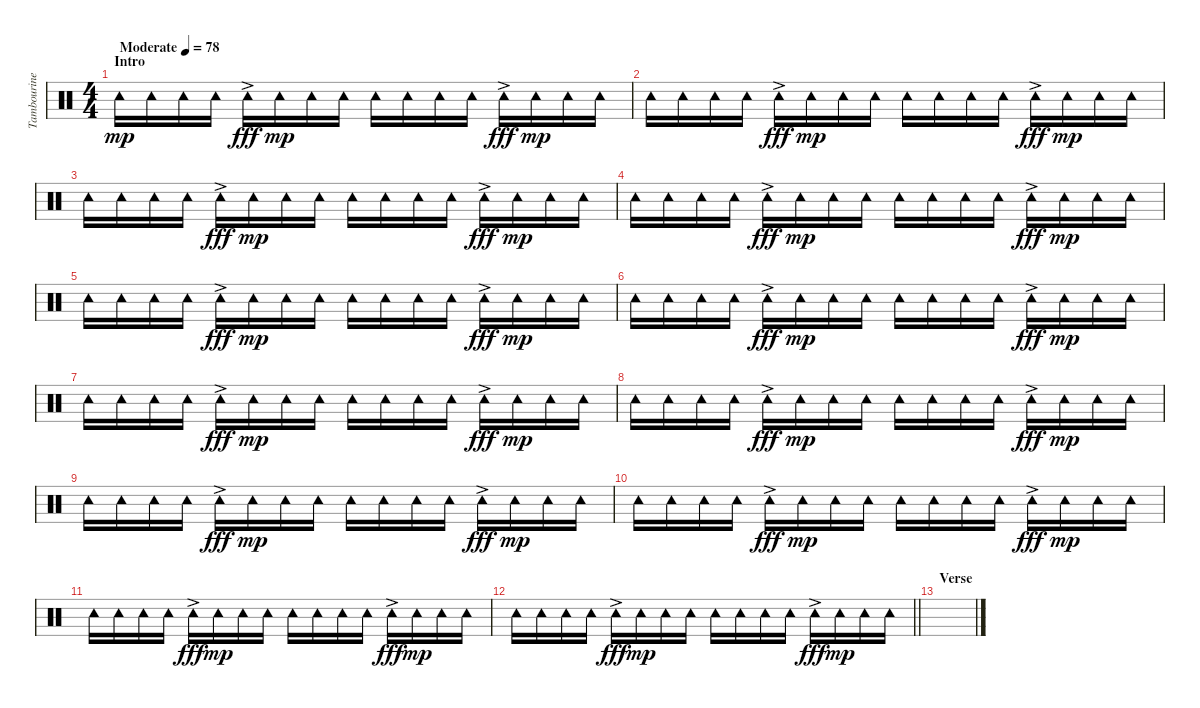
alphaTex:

\track ("Tambourine" "Tambourine") {instrument percussion}
\staff {score}
\articulation defaults
\ts (4 4)
\section ("" "Intro")
\tempo (78 "Moderate")
\clef neutral
\ks c "Tambourine (hit)".16{dy mp} "Tambourine (hit)".16 "Tambourine (hit)".16 "Tambourine (hit)".16 "Tambourine (hit)"{ac}.16{dy fff} "Tambourine (hit)".16{dy mp} "Tambourine (hit)".16 "Tambourine (hit)".16 "Tambourine (hit)".16 "Tambourine (hit)".16 "Tambourine (hit)".16 "Tambourine (hit)".16 "Tambourine (hit)"{ac}.16{dy fff} "Tambourine (hit)".16{dy mp} "Tambourine (hit)".16 "Tambourine (hit)".16
|
"Tambourine (hit)".16 "Tambourine (hit)".16 "Tambourine (hit)".16 "Tambourine (hit)".16 "Tambourine (hit)"{ac}.16{dy fff} "Tambourine (hit)".16{dy mp} "Tambourine (hit)".16 "Tambourine (hit)".16 "Tambourine (hit)".16 "Tambourine (hit)".16 "Tambourine (hit)".16 "Tambourine (hit)".16 "Tambourine (hit)"{ac}.16{dy fff} "Tambourine (hit)".16{dy mp} "Tambourine (hit)".16 "Tambourine (hit)".16 |
"Tambourine (hit)".16 "Tambourine (hit)".16 "Tambourine (hit)".16 "Tambourine (hit)".16 "Tambourine (hit)"{ac}.16{dy fff} "Tambourine (hit)".16{dy mp} "Tambourine (hit)".16 "Tambourine (hit)".16 "Tambourine (hit)".16 "Tambourine (hit)".16 "Tambourine (hit)".16 "Tambourine (hit)".16 "Tambourine (hit)"{ac}.16{dy fff} "Tambourine (hit)".16{dy mp} "Tambourine (hit)".16 "Tambourine (hit)".16 |
"Tambourine (hit)".16 "Tambourine (hit)".16 "Tambourine (hit)".16 "Tambourine (hit)".16 "Tambourine (hit)"{ac}.16{dy fff} "Tambourine (hit)".16{dy mp} "Tambourine (hit)".16 "Tambourine (hit)".16 "Tambourine (hit)".16 "Tambourine (hit)".16 "Tambourine (hit)".16 "Tambourine (hit)".16 "Tambourine (hit)"{ac}.16{dy fff} "Tambourine (hit)".16{dy mp} "Tambourine (hit)".16 "Tambourine (hit)".16 |
"Tambourine (hit)".16 "Tambourine (hit)".16 "Tambourine (hit)".16 "Tambourine (hit)".16 "Tambourine (hit)"{ac}.16{dy fff} "Tambourine (hit)".16{dy mp} "Tambourine (hit)".16 "Tambourine (hit)".16 "Tambourine (hit)".16 "Tambourine (hit)".16 "Tambourine (hit)".16 "Tambourine (hit)".16 "Tambourine (hit)"{ac}.16{dy fff} "Tambourine (hit)".16{dy mp} "Tambourine (hit)".16 "Tambourine (hit)".16 |
"Tambourine (hit)".16 "Tambourine (hit)".16 "Tambourine (hit)".16 "Tambourine (hit)".16 "Tambourine (hit)"{ac}.16{dy fff} "Tambourine (hit)".16{dy mp} "Tambourine (hit)".16 "Tambourine (hit)".16 "Tambourine (hit)".16 "Tambourine (hit)".16 "Tambourine (hit)".16 "Tambourine (hit)".16 "Tambourine (hit)"{ac}.16{dy fff} "Tambourine (hit)".16{dy mp} "Tambourine (hit)".16 "Tambourine (hit)".16 |
"Tambourine (hit)".16 "Tambourine (hit)".16 "Tambourine (hit)".16 "Tambourine (hit)".16 "Tambourine (hit)"{ac}.16{dy fff} "Tambourine (hit)".16{dy mp} "Tambourine (hit)".16 "Tambourine (hit)".16 "Tambourine (hit)".16 "Tambourine (hit)".16 "Tambourine (hit)".16 "Tambourine (hit)".16 "Tambourine (hit)"{ac}.16{dy fff} "Tambourine (hit)".16{dy mp} "Tambourine (hit)".16 "Tambourine (hit)".16 |
"Tambourine (hit)".16 "Tambourine (hit)".16 "Tambourine (hit)".16 "Tambourine (hit)".16 "Tambourine (hit)"{ac}.16{dy fff} "Tambourine (hit)".16{dy mp} "Tambourine (hit)".16 "Tambourine (hit)".16 "Tambourine (hit)".16 "Tambourine (hit)".16 "Tambourine (hit)".16 "Tambourine (hit)".16 "Tambourine (hit)"{ac}.16{dy fff} "Tambourine (hit)".16{dy mp} "Tambourine (hit)".16 "Tambourine (hit)".16 |
"Tambourine (hit)".16 "Tambourine (hit)".16 "Tambourine (hit)".16 "Tambourine (hit)".16 "Tambourine (hit)"{ac}.16{dy fff} "Tambourine (hit)".16{dy mp} "Tambourine (hit)".16 "Tambourine (hit)".16 "Tambourine (hit)".16 "Tambourine (hit)".16 "Tambourine (hit)".16 "Tambourine (hit)".16 "Tambourine (hit)"{ac}.16{dy fff} "Tambourine (hit)".16{dy mp} "Tambourine (hit)".16 "Tambourine (hit)".16 |
"Tambourine (hit)".16 "Tambourine (hit)".16 "Tambourine (hit)".16 "Tambourine (hit)".16 "Tambourine (hit)"{ac}.16{dy fff} "Tambourine (hit)".16{dy mp} "Tambourine (hit)".16 "Tambourine (hit)".16 "Tambourine (hit)".16 "Tambourine (hit)".16 "Tambourine (hit)".16 "Tambourine (hit)".16 "Tambourine (hit)"{ac}.16{dy fff} "Tambourine (hit)".16{dy mp} "Tambourine (hit)".16 "Tambourine (hit)".16 |
"Tambourine (hit)".16 "Tambourine (hit)".16 "Tambourine (hit)".16 "Tambourine (hit)".16 "Tambourine (hit)"{ac}.16{dy fff} "Tambourine (hit)".16{dy mp} "Tambourine (hit)".16 "Tambourine (hit)".16 "Tambourine (hit)".16 "Tambourine (hit)".16 "Tambourine (hit)".16 "Tambourine (hit)".16 "Tambourine (hit)"{ac}.16{dy fff} "Tambourine (hit)".16{dy mp} "Tambourine (hit)".16 "Tambourine (hit)".16 |
\barLineRight lightlight "Tambourine (hit)".16 "Tambourine (hit)".16 "Tambourine (hit)".16 "Tambourine (hit)".16 "Tambourine (hit)"{ac}.16{dy fff} "Tambourine (hit)".16{dy mp} "Tambourine (hit)".16 "Tambourine (hit)".16 "Tambourine (hit)".16 "Tambourine (hit)".16 "Tambourine (hit)".16 "Tambourine (hit)".16 "Tambourine (hit)"{ac}.16{dy fff} "Tambourine (hit)".16{dy mp} "Tambourine (hit)".16 "Tambourine (hit)".16
|
\section ("" "Verse")
